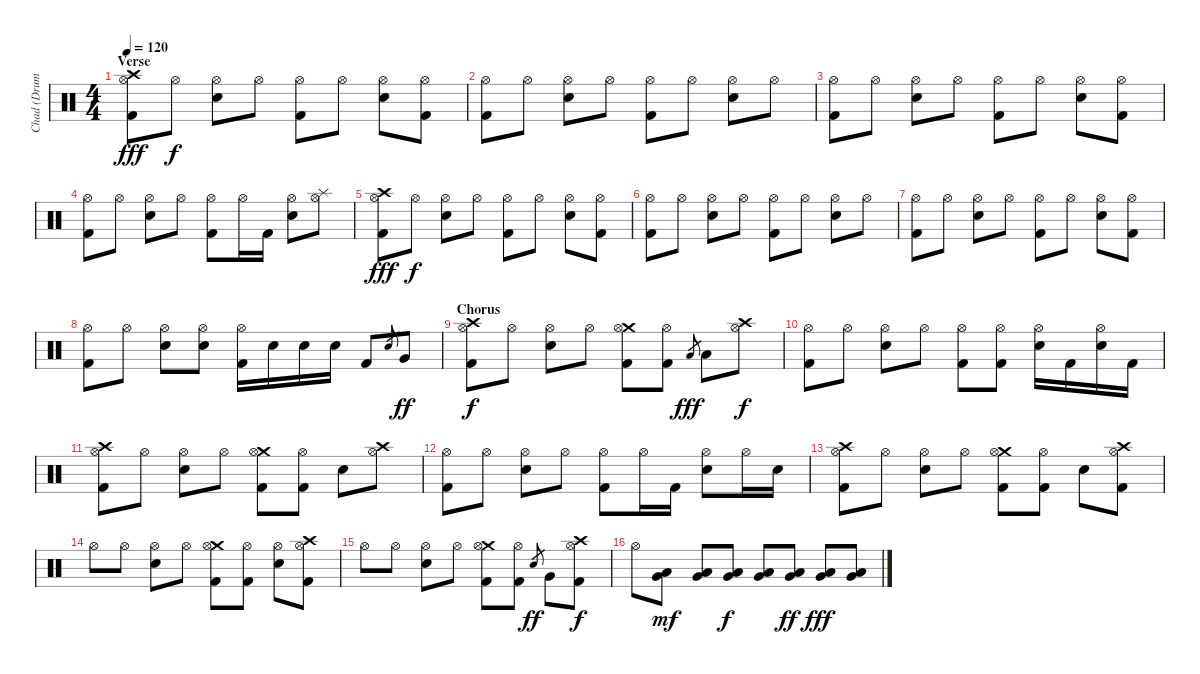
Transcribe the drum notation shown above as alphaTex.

\track ("Chad (Drums)" "Chad (Drum") {instrument percussion}
\staff {score}
\articulation defaults
\ts (4 4)
\section ("" "Verse")
\tempo 120
\clef neutral
\ks c
("Crash high (hit)" "Hi-Hat (open)" "Kick (hit) 2").8{dy fff} "Hi-Hat (open)".8{dy f} ("Hi-Hat (open)" "Snare (hit) 2").8 "Hi-Hat (open)".8 ("Hi-Hat (open)" "Kick (hit) 2").8 "Hi-Hat (open)".8 ("Hi-Hat (open)" "Snare (hit) 2").8 ("Hi-Hat (open)" "Kick (hit) 2").8 |
("Hi-Hat (open)" "Kick (hit) 2").8 "Hi-Hat (open)".8 ("Hi-Hat (open)" "Snare (hit) 2").8 "Hi-Hat (open)".8 ("Hi-Hat (open)" "Kick (hit) 2").8 "Hi-Hat (open)".8 ("Hi-Hat (open)" "Snare (hit) 2").8 "Hi-Hat (open)".8 |
("Hi-Hat (open)" "Kick (hit) 2").8 "Hi-Hat (open)".8 ("Hi-Hat (open)" "Snare (hit) 2").8 "Hi-Hat (open)".8 ("Hi-Hat (open)" "Kick (hit) 2").8 "Hi-Hat (open)".8 ("Hi-Hat (open)" "Snare (hit) 2").8 ("Hi-Hat (open)" "Kick (hit) 2").8 |
("Hi-Hat (open)" "Kick (hit) 2").8 "Hi-Hat (open)".8 ("Hi-Hat (open)" "Snare (hit) 2").8 "Hi-Hat (open)".8 ("Hi-Hat (open)" "Kick (hit) 2").8 "Hi-Hat (open)".16 "Kick (hit) 2".16 ("Hi-Hat (open)" "Snare (hit) 2").8 ("Splash (hit)" "Hi-Hat (open)").8 |
("Crash high (hit)" "Hi-Hat (open)" "Kick (hit) 2").8{dy fff} "Hi-Hat (open)".8{dy f} ("Hi-Hat (open)" "Snare (hit) 2").8 "Hi-Hat (open)".8 ("Hi-Hat (open)" "Kick (hit) 2").8 "Hi-Hat (open)".8 ("Hi-Hat (open)" "Snare (hit) 2").8 ("Hi-Hat (open)" "Kick (hit) 2").8 |
("Hi-Hat (open)" "Kick (hit) 2").8 "Hi-Hat (open)".8 ("Hi-Hat (open)" "Snare (hit) 2").8 "Hi-Hat (open)".8 ("Hi-Hat (open)" "Kick (hit) 2").8 "Hi-Hat (open)".8 ("Hi-Hat (open)" "Snare (hit) 2").8 "Hi-Hat (open)".8 |
("Hi-Hat (open)" "Kick (hit) 2").8 "Hi-Hat (open)".8 ("Hi-Hat (open)" "Snare (hit) 2").8 "Hi-Hat (open)".8 ("Hi-Hat (open)" "Kick (hit) 2").8 "Hi-Hat (open)".8 ("Hi-Hat (open)" "Snare (hit) 2").8 ("Hi-Hat (open)" "Kick (hit) 2").8 |
("Hi-Hat (open)" "Kick (hit) 2").8 "Hi-Hat (open)".8 ("Hi-Hat (open)" "Snare (hit) 2").8 ("Hi-Hat (open)" "Snare (hit) 2").8 ("Hi-Hat (open)" "Kick (hit) 2").16 "Snare (hit) 2".16 "Snare (hit) 2".16 "Snare (hit) 2".16 "Kick (hit) 2".8 "Snare (hit) 2".8{gr} "Very Low Tom (hit)".8{dy ff} |
\section ("" "Chorus")
("Crash high (hit)" "Hi-Hat (open)" "Kick (hit) 2").8{dy f} "Hi-Hat (open)".8 ("Hi-Hat (open)" "Snare (hit) 2").8 "Hi-Hat (open)".8 ("Crash medium (hit)" "Hi-Hat (open)" "Kick (hit) 2").8 ("Hi-Hat (open)" "Kick (hit) 2").8 "Low Floor Tom (hit)".8{gr dy fff} "Low Floor Tom (hit)".8 ("Crash high (hit)" "Hi-Hat (open)").8{dy f} |
("Hi-Hat (open)" "Kick (hit) 2").8 "Hi-Hat (open)".8 ("Hi-Hat (open)" "Snare (hit) 2").8 "Hi-Hat (open)".8 ("Hi-Hat (open)" "Kick (hit) 2").8 ("Hi-Hat (open)" "Kick (hit) 2").8 ("Hi-Hat (open)" "Snare (hit) 2").16 "Kick (hit) 2".16 ("Hi-Hat (open)" "Snare (hit) 2").16 "Kick (hit) 2".16 |
("Crash high (hit)" "Hi-Hat (open)" "Kick (hit) 2").8 "Hi-Hat (open)".8 ("Hi-Hat (open)" "Snare (hit) 2").8 "Hi-Hat (open)".8 ("Crash medium (hit)" "Hi-Hat (open)" "Kick (hit) 2").8 ("Hi-Hat (open)" "Kick (hit) 2").8 "Snare (hit) 2".8 ("Crash high (hit)" "Hi-Hat (open)").8 |
("Hi-Hat (open)" "Kick (hit) 2").8 "Hi-Hat (open)".8 ("Hi-Hat (open)" "Snare (hit) 2").8 "Hi-Hat (open)".8 ("Hi-Hat (open)" "Kick (hit) 2").8 "Hi-Hat (open)".16 "Kick (hit) 2".16 ("Hi-Hat (open)" "Snare (hit) 2").8 "Hi-Hat (open)".16 "Snare (hit) 2".16 |
("Crash high (hit)" "Hi-Hat (open)" "Kick (hit) 2").8 "Hi-Hat (open)".8 ("Hi-Hat (open)" "Snare (hit) 2").8 "Hi-Hat (open)".8 ("Crash medium (hit)" "Hi-Hat (open)" "Kick (hit) 2").8 ("Hi-Hat (open)" "Kick (hit) 2").8 "Snare (hit) 2".8 ("Crash high (hit)" "Hi-Hat (open)" "Kick (hit) 2").8 |
"Hi-Hat (open)".8 "Hi-Hat (open)".8 ("Hi-Hat (open)" "Snare (hit) 2").8 "Hi-Hat (open)".8 ("Crash medium (hit)" "Hi-Hat (open)" "Kick (hit) 2").8 ("Hi-Hat (open)" "Kick (hit) 2").8 ("Hi-Hat (open)" "Snare (hit) 2").8 ("Crash high (hit)" "Hi-Hat (open)" "Kick (hit) 2").8 |
"Hi-Hat (open)".8 "Hi-Hat (open)".8 ("Hi-Hat (open)" "Snare (hit) 2").8 "Hi-Hat (open)".8 ("Crash medium (hit)" "Hi-Hat (open)" "Kick (hit) 2").8 ("Hi-Hat (open)" "Kick (hit) 2").8 "Snare (hit) 2".8{gr dy ff} "Very Low Tom (hit)".8 ("Crash high (hit)" "Hi-Hat (open)" "Kick (hit) 2").8{dy f} |
"Hi-Hat (open)".8 ("Low Floor Tom (hit)" "Very Low Tom (hit)").8{dy mf} ("Low Floor Tom (hit)" "Very Low Tom (hit)").8 ("Low Floor Tom (hit)" "Very Low Tom (hit)").8{dy f} ("Low Floor Tom (hit)" "Very Low Tom (hit)").8 ("Low Floor Tom (hit)" "Very Low Tom (hit)").8{dy ff} ("Low Floor Tom (hit)" "Very Low Tom (hit)").8{dy fff} ("Low Floor Tom (hit)" "Very Low Tom (hit)").8
